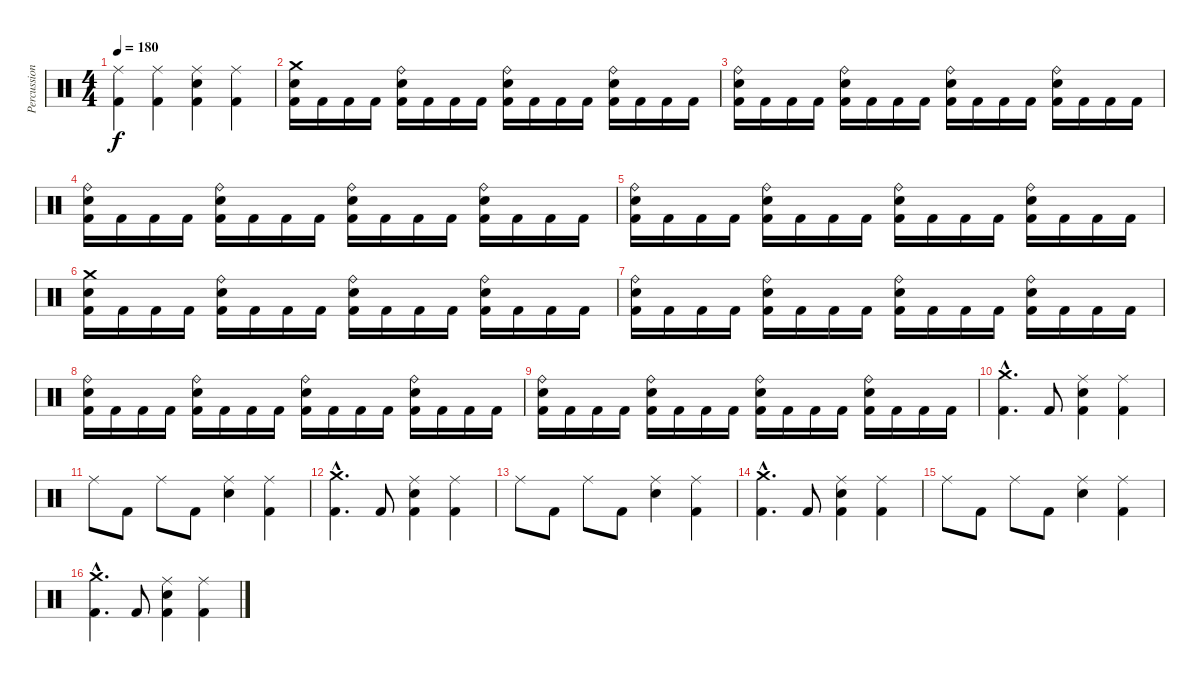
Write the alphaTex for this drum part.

\track ("Percussion" "Percussion") {instrument percussion}
\staff {score}
\articulation defaults
\ts (4 4)
\tempo 180
\clef neutral
\ks c
("Ride (middle)" "Kick (hit) 2").4{dy f} ("Ride (middle)" "Kick (hit) 2").4 ("Ride (middle)" "Electric Snare (hit)" "Kick (hit) 2").4 ("Ride (middle)" "Kick (hit) 2").4 |
("Crash medium (hit)" "Electric Snare (hit)" "Kick (hit) 2").16 "Kick (hit) 2".16 "Kick (hit) 2".16 "Kick (hit) 2".16 ("Ride (bell)" "Electric Snare (hit)" "Kick (hit) 2").16 "Kick (hit) 2".16 "Kick (hit) 2".16 "Kick (hit) 2".16 ("Ride (bell)" "Electric Snare (hit)" "Kick (hit) 2").16 "Kick (hit) 2".16 "Kick (hit) 2".16 "Kick (hit) 2".16 ("Ride (bell)" "Electric Snare (hit)" "Kick (hit) 2").16 "Kick (hit) 2".16 "Kick (hit) 2".16 "Kick (hit) 2".16 |
("Ride (bell)" "Electric Snare (hit)" "Kick (hit) 2").16 "Kick (hit) 2".16 "Kick (hit) 2".16 "Kick (hit) 2".16 ("Ride (bell)" "Electric Snare (hit)" "Kick (hit) 2").16 "Kick (hit) 2".16 "Kick (hit) 2".16 "Kick (hit) 2".16 ("Ride (bell)" "Electric Snare (hit)" "Kick (hit) 2").16 "Kick (hit) 2".16 "Kick (hit) 2".16 "Kick (hit) 2".16 ("Ride (bell)" "Electric Snare (hit)" "Kick (hit) 2").16 "Kick (hit) 2".16 "Kick (hit) 2".16 "Kick (hit) 2".16 |
("Ride (bell)" "Electric Snare (hit)" "Kick (hit) 2").16 "Kick (hit) 2".16 "Kick (hit) 2".16 "Kick (hit) 2".16 ("Ride (bell)" "Electric Snare (hit)" "Kick (hit) 2").16 "Kick (hit) 2".16 "Kick (hit) 2".16 "Kick (hit) 2".16 ("Ride (bell)" "Electric Snare (hit)" "Kick (hit) 2").16 "Kick (hit) 2".16 "Kick (hit) 2".16 "Kick (hit) 2".16 ("Ride (bell)" "Electric Snare (hit)" "Kick (hit) 2").16 "Kick (hit) 2".16 "Kick (hit) 2".16 "Kick (hit) 2".16 |
("Ride (bell)" "Electric Snare (hit)" "Kick (hit) 2").16 "Kick (hit) 2".16 "Kick (hit) 2".16 "Kick (hit) 2".16 ("Ride (bell)" "Electric Snare (hit)" "Kick (hit) 2").16 "Kick (hit) 2".16 "Kick (hit) 2".16 "Kick (hit) 2".16 ("Ride (bell)" "Electric Snare (hit)" "Kick (hit) 2").16 "Kick (hit) 2".16 "Kick (hit) 2".16 "Kick (hit) 2".16 ("Ride (bell)" "Electric Snare (hit)" "Kick (hit) 2").16 "Kick (hit) 2".16 "Kick (hit) 2".16 "Kick (hit) 2".16 |
("Crash medium (hit)" "Electric Snare (hit)" "Kick (hit) 2").16 "Kick (hit) 2".16 "Kick (hit) 2".16 "Kick (hit) 2".16 ("Ride (bell)" "Electric Snare (hit)" "Kick (hit) 2").16 "Kick (hit) 2".16 "Kick (hit) 2".16 "Kick (hit) 2".16 ("Ride (bell)" "Electric Snare (hit)" "Kick (hit) 2").16 "Kick (hit) 2".16 "Kick (hit) 2".16 "Kick (hit) 2".16 ("Ride (bell)" "Electric Snare (hit)" "Kick (hit) 2").16 "Kick (hit) 2".16 "Kick (hit) 2".16 "Kick (hit) 2".16 |
("Ride (bell)" "Electric Snare (hit)" "Kick (hit) 2").16 "Kick (hit) 2".16 "Kick (hit) 2".16 "Kick (hit) 2".16 ("Ride (bell)" "Electric Snare (hit)" "Kick (hit) 2").16 "Kick (hit) 2".16 "Kick (hit) 2".16 "Kick (hit) 2".16 ("Ride (bell)" "Electric Snare (hit)" "Kick (hit) 2").16 "Kick (hit) 2".16 "Kick (hit) 2".16 "Kick (hit) 2".16 ("Ride (bell)" "Electric Snare (hit)" "Kick (hit) 2").16 "Kick (hit) 2".16 "Kick (hit) 2".16 "Kick (hit) 2".16 |
("Ride (bell)" "Electric Snare (hit)" "Kick (hit) 2").16 "Kick (hit) 2".16 "Kick (hit) 2".16 "Kick (hit) 2".16 ("Ride (bell)" "Electric Snare (hit)" "Kick (hit) 2").16 "Kick (hit) 2".16 "Kick (hit) 2".16 "Kick (hit) 2".16 ("Ride (bell)" "Electric Snare (hit)" "Kick (hit) 2").16 "Kick (hit) 2".16 "Kick (hit) 2".16 "Kick (hit) 2".16 ("Ride (bell)" "Electric Snare (hit)" "Kick (hit) 2").16 "Kick (hit) 2".16 "Kick (hit) 2".16 "Kick (hit) 2".16 |
("Ride (bell)" "Electric Snare (hit)" "Kick (hit) 2").16 "Kick (hit) 2".16 "Kick (hit) 2".16 "Kick (hit) 2".16 ("Ride (bell)" "Electric Snare (hit)" "Kick (hit) 2").16 "Kick (hit) 2".16 "Kick (hit) 2".16 "Kick (hit) 2".16 ("Ride (bell)" "Electric Snare (hit)" "Kick (hit) 2").16 "Kick (hit) 2".16 "Kick (hit) 2".16 "Kick (hit) 2".16 ("Ride (bell)" "Electric Snare (hit)" "Kick (hit) 2").16 "Kick (hit) 2".16 "Kick (hit) 2".16 "Kick (hit) 2".16 |
("Crash medium (hit)"{hac} "Kick (hit) 2"{hac}).4{d} "Kick (hit) 2".8 ("Ride (middle)" "Electric Snare (hit)" "Kick (hit) 2").4 ("Ride (middle)" "Kick (hit) 2").4 |
"Ride (middle)".8 "Kick (hit) 2".8 "Ride (middle)".8 "Kick (hit) 2".8 ("Ride (middle)" "Electric Snare (hit)").4 ("Ride (middle)" "Kick (hit) 2").4 |
("Crash medium (hit)"{hac} "Kick (hit) 2"{hac}).4{d} "Kick (hit) 2".8 ("Ride (middle)" "Electric Snare (hit)" "Kick (hit) 2").4 ("Ride (middle)" "Kick (hit) 2").4 |
"Ride (middle)".8 "Kick (hit) 2".8 "Ride (middle)".8 "Kick (hit) 2".8 ("Ride (middle)" "Electric Snare (hit)").4 ("Ride (middle)" "Kick (hit) 2").4 |
("Crash medium (hit)"{hac} "Kick (hit) 2"{hac}).4{d} "Kick (hit) 2".8 ("Ride (middle)" "Electric Snare (hit)" "Kick (hit) 2").4 ("Ride (middle)" "Kick (hit) 2").4 |
"Ride (middle)".8 "Kick (hit) 2".8 "Ride (middle)".8 "Kick (hit) 2".8 ("Ride (middle)" "Electric Snare (hit)").4 ("Ride (middle)" "Kick (hit) 2").4 |
("Crash medium (hit)"{hac} "Kick (hit) 2"{hac}).4{d} "Kick (hit) 2".8 ("Ride (middle)" "Electric Snare (hit)" "Kick (hit) 2").4 ("Ride (middle)" "Kick (hit) 2").4
